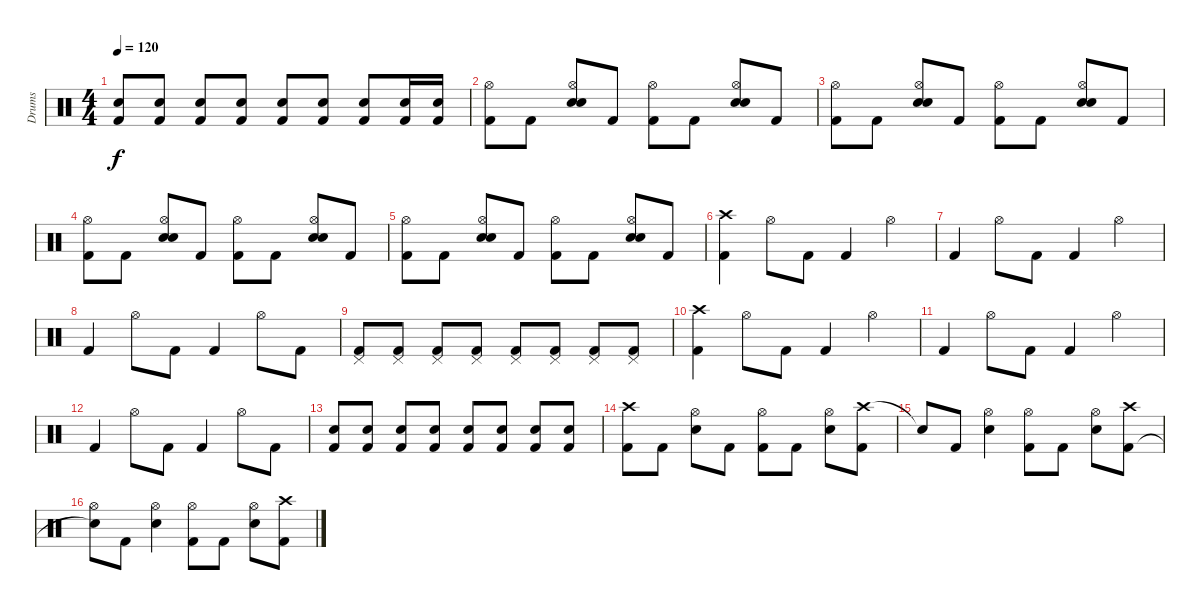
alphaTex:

\track ("Drums" "Drums") {instrument percussion}
\staff {score}
\articulation defaults
\ts (4 4)
\tempo 120
\clef neutral
\ks c
("Snare (hit) 2" "Kick (hit) 2").8{dy f} ("Snare (hit) 2" "Kick (hit) 2").8 ("Snare (hit) 2" "Kick (hit) 2").8 ("Snare (hit) 2" "Kick (hit) 2").8 ("Snare (hit) 2" "Kick (hit) 2").8 ("Snare (hit) 2" "Kick (hit) 2").8 ("Snare (hit) 2" "Kick (hit) 2").8 ("Snare (hit) 2" "Kick (hit) 2").16 ("Snare (hit) 2" "Kick (hit) 2").16 |
("Hi-Hat (open)" "Kick (hit) 2").8 "Kick (hit) 2".8 ("Hi-Hat (open)" "Electric Snare (hit)" "Snare (hit) 2").8 "Kick (hit) 2".8 ("Hi-Hat (open)" "Kick (hit) 2").8 "Kick (hit) 2".8 ("Hi-Hat (open)" "Electric Snare (hit)" "Snare (hit) 2").8 "Kick (hit) 2".8 |
("Hi-Hat (open)" "Kick (hit) 2").8 "Kick (hit) 2".8 ("Hi-Hat (open)" "Electric Snare (hit)" "Snare (hit) 2").8 "Kick (hit) 2".8 ("Hi-Hat (open)" "Kick (hit) 2").8 "Kick (hit) 2".8 ("Hi-Hat (open)" "Electric Snare (hit)" "Snare (hit) 2").8 "Kick (hit) 2".8 |
("Hi-Hat (open)" "Kick (hit) 2").8 "Kick (hit) 2".8 ("Hi-Hat (open)" "Electric Snare (hit)" "Snare (hit) 2").8 "Kick (hit) 2".8 ("Hi-Hat (open)" "Kick (hit) 2").8 "Kick (hit) 2".8 ("Hi-Hat (open)" "Electric Snare (hit)" "Snare (hit) 2").8 "Kick (hit) 2".8 |
("Hi-Hat (open)" "Kick (hit) 2").8 "Kick (hit) 2".8 ("Hi-Hat (open)" "Electric Snare (hit)" "Snare (hit) 2").8 "Kick (hit) 2".8 ("Hi-Hat (open)" "Kick (hit) 2").8 "Kick (hit) 2".8 ("Hi-Hat (open)" "Electric Snare (hit)" "Snare (hit) 2").8 "Kick (hit) 2".8 |
("Crash high (hit)" "Kick (hit) 2").4 "Hi-Hat (open)".8 "Kick (hit) 2".8 "Kick (hit) 2".4 "Hi-Hat (open)".4 |
"Kick (hit) 2".4 "Hi-Hat (open)".8 "Kick (hit) 2".8 "Kick (hit) 2".4 "Hi-Hat (open)".4 |
"Kick (hit) 2".4 "Hi-Hat (open)".8 "Kick (hit) 2".8 "Kick (hit) 2".4 "Hi-Hat (open)".8 "Kick (hit) 2".8 |
("Pedal Hi-Hat (hit)" "Kick (hit) 2").8 ("Pedal Hi-Hat (hit)" "Kick (hit) 2").8 ("Pedal Hi-Hat (hit)" "Kick (hit) 2").8 ("Pedal Hi-Hat (hit)" "Kick (hit) 2").8 ("Pedal Hi-Hat (hit)" "Kick (hit) 2").8 ("Pedal Hi-Hat (hit)" "Kick (hit) 2").8 ("Pedal Hi-Hat (hit)" "Kick (hit) 2").8 ("Pedal Hi-Hat (hit)" "Kick (hit) 2").8 |
("Crash high (hit)" "Kick (hit) 2").4 "Hi-Hat (open)".8 "Kick (hit) 2".8 "Kick (hit) 2".4 "Hi-Hat (open)".4 |
"Kick (hit) 2".4 "Hi-Hat (open)".8 "Kick (hit) 2".8 "Kick (hit) 2".4 "Hi-Hat (open)".4 |
"Kick (hit) 2".4 "Hi-Hat (open)".8 "Kick (hit) 2".8 "Kick (hit) 2".4 "Hi-Hat (open)".8 "Kick (hit) 2".8 |
("Snare (hit) 2" "Kick (hit) 2").8 ("Snare (hit) 2" "Kick (hit) 2").8 ("Snare (hit) 2" "Kick (hit) 2").8 ("Snare (hit) 2" "Kick (hit) 2").8 ("Snare (hit) 2" "Kick (hit) 2").8 ("Snare (hit) 2" "Kick (hit) 2").8 ("Snare (hit) 2" "Kick (hit) 2").8 ("Snare (hit) 2" "Kick (hit) 2").8 |
("Crash high (hit)" "Kick (hit) 2").8 "Kick (hit) 2".8 ("Hi-Hat (open)" "Electric Snare (hit)").8 "Kick (hit) 2".8 ("Hi-Hat (open)" "Kick (hit) 2").8 "Kick (hit) 2".8 ("Hi-Hat (open)" "Electric Snare (hit)").8 ("Crash high (hit)" "Kick (hit) 2").8 |
"Snare (hit)"{t}.8 "Kick (hit) 2".8 ("Hi-Hat (open)" "Electric Snare (hit)").4 ("Hi-Hat (open)" "Kick (hit) 2").8 "Kick (hit) 2".8 ("Hi-Hat (open)" "Electric Snare (hit)").8 ("Crash high (hit)" "Kick (hit) 2").8 |
("Hi-Hat (open)" "Snare (hit)"{t}).8 "Kick (hit) 2".8 ("Hi-Hat (open)" "Electric Snare (hit)").4 ("Hi-Hat (open)" "Kick (hit) 2").8 "Kick (hit) 2".8 ("Hi-Hat (open)" "Electric Snare (hit)").8 ("Crash high (hit)" "Kick (hit) 2").8
